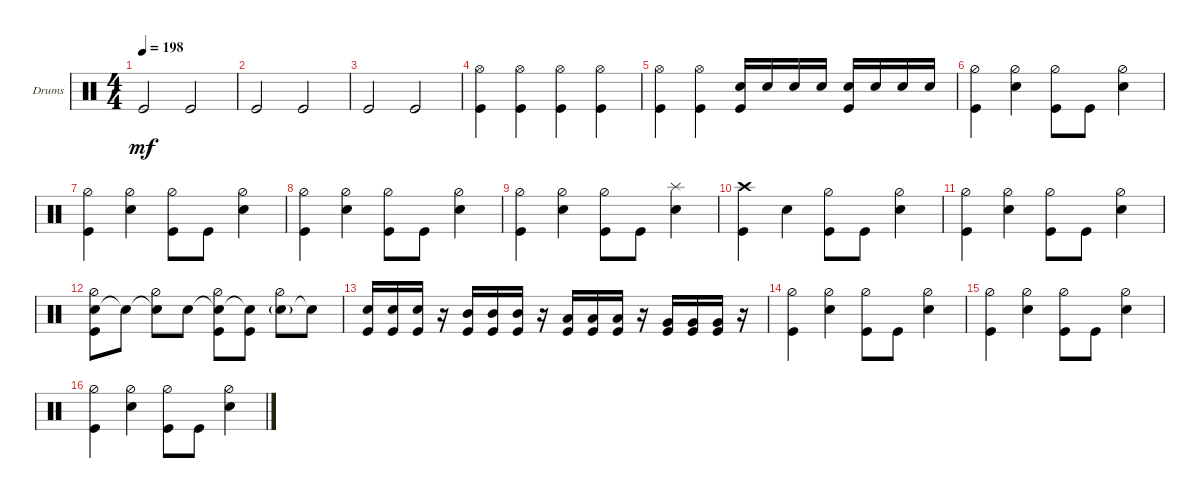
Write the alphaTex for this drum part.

\bracketExtendMode groupsimilarinstruments
\firstSystemTrackNameOrientation horizontal
\otherSystemsTrackNameOrientation horizontal
\track ("Drumkit" "Drums") {instrument percussion}
\staff {score}
\articulation defaults
\ts (4 4)
\tempo 198
\clef neutral
\ks c "Kick (hit)".2{dy mf} "Kick (hit)".2
|
"Kick (hit)".2 "Kick (hit)".2 |
"Kick (hit)".2 "Kick (hit)".2 |
("Kick (hit)" "Hi-Hat (open)").4 ("Kick (hit)" "Hi-Hat (open)").4 ("Kick (hit)" "Hi-Hat (open)").4 ("Kick (hit)" "Hi-Hat (open)").4 |
("Kick (hit)" "Hi-Hat (open)").4 ("Kick (hit)" "Hi-Hat (open)").4 ("Kick (hit)" "Snare (hit) 2").16 "Snare (hit) 2".16 "Snare (hit) 2".16 "Snare (hit) 2".16 ("Snare (hit) 2" "Kick (hit)").16 "Snare (hit) 2".16 "Snare (hit) 2".16 "Snare (hit) 2".16 |
("Kick (hit)" "Hi-Hat (half)").4 ("Snare (hit) 2" "Hi-Hat (half)").4 ("Kick (hit)" "Hi-Hat (half)").8 "Kick (hit)".8 ("Snare (hit) 2" "Hi-Hat (half)").4 |
("Kick (hit)" "Hi-Hat (half)").4 ("Snare (hit) 2" "Hi-Hat (half)").4 ("Kick (hit)" "Hi-Hat (half)").8 "Kick (hit)".8 ("Snare (hit) 2" "Hi-Hat (half)").4 |
("Kick (hit)" "Hi-Hat (half)").4 ("Snare (hit) 2" "Hi-Hat (half)").4 ("Kick (hit)" "Hi-Hat (half)").8 "Kick (hit)".8 ("Snare (hit) 2" "Hi-Hat (half)").4 |
("Kick (hit)" "Hi-Hat (half)").4 ("Snare (hit) 2" "Hi-Hat (half)").4 ("Kick (hit)" "Hi-Hat (half)").8 "Kick (hit)".8 ("Snare (hit) 2" "Splash (hit)").4 |
("Kick (hit)" "Crash high (hit)").4 "Snare (hit) 2".4 ("Kick (hit)" "Hi-Hat (half)").8 "Kick (hit)".8 ("Snare (hit) 2" "Hi-Hat (half)").4 |
("Kick (hit)" "Hi-Hat (half)").4 ("Snare (hit) 2" "Hi-Hat (half)").4 ("Kick (hit)" "Hi-Hat (half)").8 "Kick (hit)".8 ("Snare (hit) 2" "Hi-Hat (half)").4 |
("Snare (hit) 2" "Hi-Hat (half)" "Kick (hit)").8 "Snare (hit) 2"{t}.8 ("Snare (hit) 2"{t} "Hi-Hat (half)").8 "Snare (hit) 2".8 ("Snare (hit) 2"{t} "Hi-Hat (half)" "Kick (hit)").8 ("Snare (hit) 2"{t} "Kick (hit)").8 ("Snare (hit) 2"{g} "Hi-Hat (half)").8 "Snare (hit) 2"{t}.8 |
("Kick (hit)" "Snare (hit) 2").16 ("Kick (hit)" "Snare (hit) 2").16 ("Kick (hit)" "Snare (hit) 2").16 r.16 ("Kick (hit)" "Mid Tom (hit)").16 ("Kick (hit)" "Mid Tom (hit)").16 ("Kick (hit)" "Mid Tom (hit)").16 r.16 ("Kick (hit)" "Low Tom (hit)").16 ("Kick (hit)" "Low Tom (hit)").16 ("Kick (hit)" "Low Tom (hit)").16 r.16 ("Kick (hit)" "Very Low Tom (hit)").16 ("Kick (hit)" "Very Low Tom (hit)").16 ("Kick (hit)" "Very Low Tom (hit)").16 r.16 |
("Kick (hit)" "Hi-Hat (half)").4 ("Snare (hit) 2" "Hi-Hat (half)").4 ("Kick (hit)" "Hi-Hat (half)").8 "Kick (hit)".8 ("Snare (hit) 2" "Hi-Hat (half)").4 |
("Kick (hit)" "Hi-Hat (half)").4 ("Snare (hit) 2" "Hi-Hat (half)").4 ("Kick (hit)" "Hi-Hat (half)").8 "Kick (hit)".8 ("Snare (hit) 2" "Hi-Hat (half)").4 |
("Kick (hit)" "Hi-Hat (half)").4 ("Snare (hit) 2" "Hi-Hat (half)").4 ("Kick (hit)" "Hi-Hat (half)").8 "Kick (hit)".8 ("Snare (hit) 2" "Hi-Hat (half)").4
